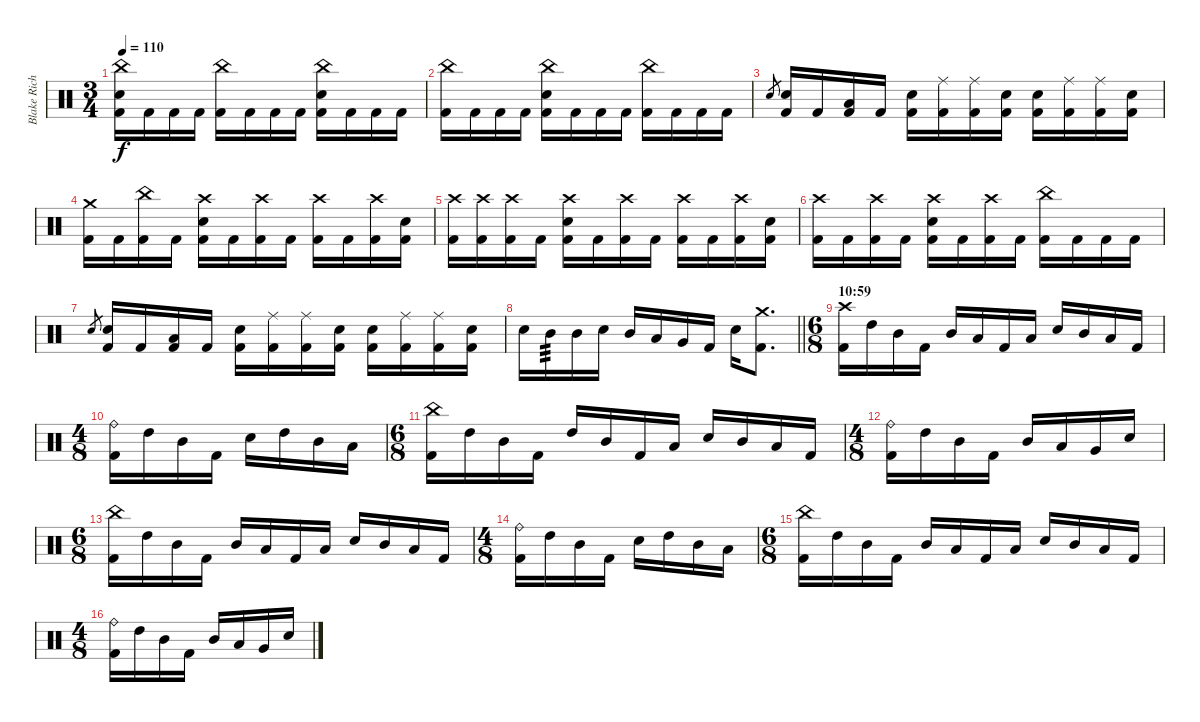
\track ("Blake Richardson" "Blake Rich") {instrument percussion}
\staff {score}
\articulation defaults
\ts (3 4)
\tempo 110
\clef neutral
\ks c
("China (hit)" "Electric Snare (hit)" "Kick (hit) 2").16{dy f} "Kick (hit) 2".16 "Kick (hit) 2".16 "Kick (hit) 2".16 ("China (hit)" "Kick (hit) 2").16 "Kick (hit) 2".16 "Kick (hit) 2".16 "Kick (hit) 2".16 ("China (hit)" "Electric Snare (hit)" "Kick (hit) 2").16 "Kick (hit) 2".16 "Kick (hit) 2".16 "Kick (hit) 2".16 |
("China (hit)" "Kick (hit) 2").16 "Kick (hit) 2".16 "Kick (hit) 2".16 "Kick (hit) 2".16 ("China (hit)" "Electric Snare (hit)" "Kick (hit) 2").16 "Kick (hit) 2".16 "Kick (hit) 2".16 "Kick (hit) 2".16 ("China (hit)" "Kick (hit) 2").16 "Kick (hit) 2".16 "Kick (hit) 2".16 "Kick (hit) 2".16 |
"Electric Snare (hit)".8{gr} ("Electric Snare (hit)" "Kick (hit) 2").16 "Kick (hit) 2".16 ("Low Tom (hit)" "Kick (hit) 2").16 "Kick (hit) 2".16 ("Electric Snare (hit)" "Kick (hit) 2").16 ("Ride (middle)" "Kick (hit) 2").16 ("Ride (middle)" "Kick (hit) 2").16 ("Electric Snare (hit)" "Kick (hit) 2").16 ("Electric Snare (hit)" "Kick (hit) 2").16 ("Ride (middle)" "Kick (hit) 2").16 ("Ride (middle)" "Kick (hit) 2").16 ("Electric Snare (hit)" "Kick (hit) 2").16 |
("Crash medium (hit)" "Kick (hit) 2").16 "Kick (hit) 2".16 ("China (hit)" "Kick (hit) 2").16 "Kick (hit) 2".16 ("Crash high (hit)" "Electric Snare (hit)" "Kick (hit) 2").16 "Kick (hit) 2".16 ("Crash high (hit)" "Kick (hit) 2").16 "Kick (hit) 2".16 ("Crash high (hit)" "Kick (hit) 2").16 "Kick (hit) 2".16 ("Crash high (hit)" "Kick (hit) 2").16 ("Electric Snare (hit)" "Kick (hit) 2").16 |
("Crash high (hit)" "Kick (hit) 2").16 ("Crash high (hit)" "Kick (hit) 2").16 ("Crash high (hit)" "Kick (hit) 2").16 "Kick (hit) 2".16 ("Crash high (hit)" "Electric Snare (hit)" "Kick (hit) 2").16 "Kick (hit) 2".16 ("Crash high (hit)" "Kick (hit) 2").16 "Kick (hit) 2".16 ("Crash high (hit)" "Kick (hit) 2").16 "Kick (hit) 2".16 ("Crash high (hit)" "Kick (hit) 2").16 ("Electric Snare (hit)" "Kick (hit) 2").16 |
("Crash high (hit)" "Kick (hit) 2").16 "Kick (hit) 2".16 ("Crash high (hit)" "Kick (hit) 2").16 "Kick (hit) 2".16 ("Crash high (hit)" "Electric Snare (hit)" "Kick (hit) 2").16 "Kick (hit) 2".16 ("Crash high (hit)" "Kick (hit) 2").16 "Kick (hit) 2".16 ("China (hit)" "Kick (hit) 2").16 "Kick (hit) 2".16 "Kick (hit) 2".16 "Kick (hit) 2".16 |
"Electric Snare (hit)".8{gr} ("Electric Snare (hit)" "Kick (hit) 2").16 "Kick (hit) 2".16 ("Low Tom (hit)" "Kick (hit) 2").16 "Kick (hit) 2".16 ("Electric Snare (hit)" "Kick (hit) 2").16 ("Ride (middle)" "Kick (hit) 2").16 ("Ride (middle)" "Kick (hit) 2").16 ("Electric Snare (hit)" "Kick (hit) 2").16 ("Electric Snare (hit)" "Kick (hit) 2").16 ("Ride (middle)" "Kick (hit) 2").16 ("Ride (middle)" "Kick (hit) 2").16 ("Electric Snare (hit)" "Kick (hit) 2").16 |
\barLineRight lightlight "Electric Snare (hit)".16 "Mid Tom (hit)".16{tp 3} "Mid Tom (hit)".16 "Electric Snare (hit)".16 "Mid Tom (hit)".16 "Low Tom (hit)".16 "Very Low Tom (hit)".16 "Kick (hit) 2".16 "Electric Snare (hit)".16
("Crash medium (hit)" "Kick (hit) 2").8{d} |
\ts (6 8)
\section ("" "10:59")
("Crash high (hit)" "Kick (hit) 2").16 "High Tom (hit)".16 "Mid Tom (hit)".16 "Kick (hit) 2".16{beam split} "Mid Tom (hit)".16 "Low Tom (hit)".16{beam merge} "Kick (hit) 2".16 "Low Tom (hit)".16{beam split} "Electric Snare (hit)".16 "Mid Tom (hit)".16 "Low Tom (hit)".16 "Kick (hit) 2".16 |
\ts (4 8)
("Ride (bell)" "Kick (hit) 2").16 "High Tom (hit)".16{beam merge} "Mid Tom (hit)".16 "Kick (hit) 2".16 "Electric Snare (hit)".16 "High Tom (hit)".16{beam merge} "Mid Tom (hit)".16 "Low Tom (hit)".16 |
\ts (6 8)
("China (hit)" "Kick (hit) 2").16 "High Tom (hit)".16 "Mid Tom (hit)".16 "Kick (hit) 2".16{beam split} "High Tom (hit)".16 "Mid Tom (hit)".16{beam merge} "Kick (hit) 2".16 "Low Tom (hit)".16{beam split} "Electric Snare (hit)".16 "Mid Tom (hit)".16 "Low Tom (hit)".16 "Kick (hit) 2".16 |
\ts (4 8)
("Ride (bell)" "Kick (hit) 2").16 "High Tom (hit)".16{beam merge} "Mid Tom (hit)".16 "Kick (hit) 2".16 "Mid Tom (hit)".16 "Low Tom (hit)".16{beam merge} "Very Low Tom (hit)".16 "Electric Snare (hit)".16 |
\ts (6 8)
("China (hit)" "Kick (hit) 2").16 "High Tom (hit)".16 "Mid Tom (hit)".16 "Kick (hit) 2".16{beam split} "Mid Tom (hit)".16 "Low Tom (hit)".16{beam merge} "Kick (hit) 2".16 "Low Tom (hit)".16{beam split} "Electric Snare (hit)".16 "Mid Tom (hit)".16 "Low Tom (hit)".16 "Kick (hit) 2".16 |
\ts (4 8)
("Ride (bell)" "Kick (hit) 2").16 "High Tom (hit)".16{beam merge} "Mid Tom (hit)".16 "Kick (hit) 2".16 "Electric Snare (hit)".16 "High Tom (hit)".16{beam merge} "Mid Tom (hit)".16 "Low Tom (hit)".16 |
\ts (6 8)
("China (hit)" "Kick (hit) 2").16 "High Tom (hit)".16 "Mid Tom (hit)".16 "Kick (hit) 2".16{beam split} "Mid Tom (hit)".16 "Low Tom (hit)".16{beam merge} "Kick (hit) 2".16 "Low Tom (hit)".16{beam split} "Electric Snare (hit)".16 "Mid Tom (hit)".16 "Low Tom (hit)".16 "Kick (hit) 2".16 |
\ts (4 8)
("Ride (bell)" "Kick (hit) 2").16 "High Tom (hit)".16{beam merge} "Mid Tom (hit)".16 "Kick (hit) 2".16 "Mid Tom (hit)".16 "Low Tom (hit)".16{beam merge} "Very Low Tom (hit)".16 "Electric Snare (hit)".16
